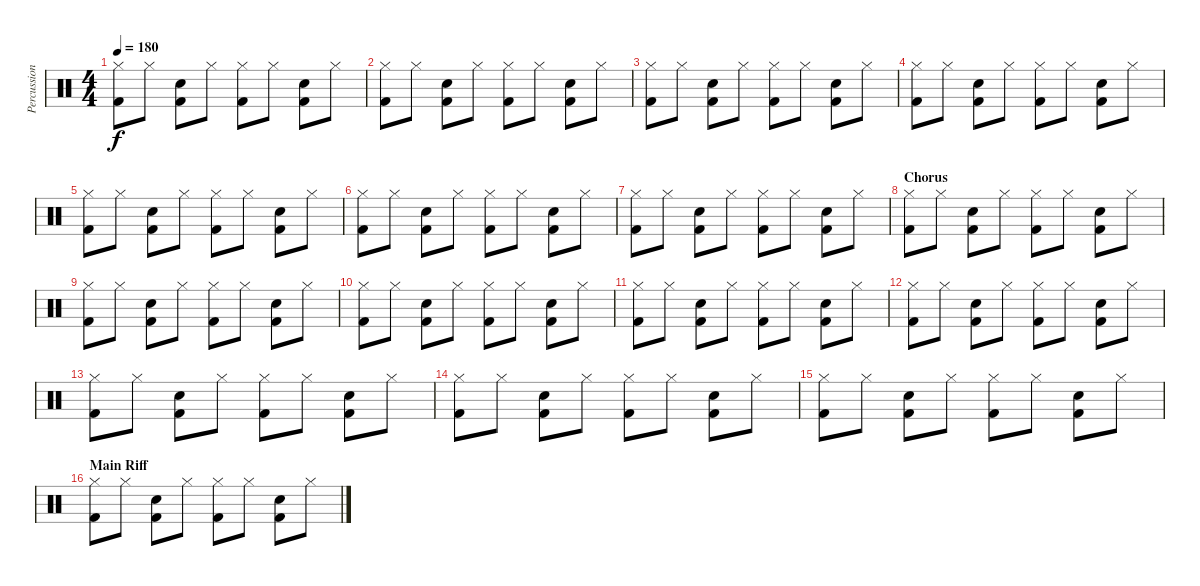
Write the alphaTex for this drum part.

\track ("Percussion" "Percussion") {instrument percussion}
\staff {score}
\articulation defaults
\ts (4 4)
\tempo 180
\clef neutral
\ks c
("Kick (hit) 2" "Hi-Hat (closed)").8{dy f} "Hi-Hat (closed)".8 ("Kick (hit) 2" "Snare (hit) 2").8 "Hi-Hat (closed)".8 ("Kick (hit) 2" "Hi-Hat (closed)").8 "Hi-Hat (closed)".8 ("Kick (hit) 2" "Electric Snare (hit)").8 "Hi-Hat (closed)".8 |
("Kick (hit) 2" "Hi-Hat (closed)").8 "Hi-Hat (closed)".8 ("Kick (hit) 2" "Snare (hit) 2").8 "Hi-Hat (closed)".8 ("Kick (hit) 2" "Hi-Hat (closed)").8 "Hi-Hat (closed)".8 ("Kick (hit) 2" "Electric Snare (hit)").8 "Hi-Hat (closed)".8 |
("Kick (hit) 2" "Hi-Hat (closed)").8 "Hi-Hat (closed)".8 ("Kick (hit) 2" "Snare (hit) 2").8 "Hi-Hat (closed)".8 ("Kick (hit) 2" "Hi-Hat (closed)").8 "Hi-Hat (closed)".8 ("Kick (hit) 2" "Electric Snare (hit)").8 "Hi-Hat (closed)".8 |
("Kick (hit) 2" "Hi-Hat (closed)").8 "Hi-Hat (closed)".8 ("Kick (hit) 2" "Snare (hit) 2").8 "Hi-Hat (closed)".8 ("Kick (hit) 2" "Hi-Hat (closed)").8 "Hi-Hat (closed)".8 ("Kick (hit) 2" "Electric Snare (hit)").8 "Hi-Hat (closed)".8 |
("Kick (hit) 2" "Hi-Hat (closed)").8 "Hi-Hat (closed)".8 ("Kick (hit) 2" "Snare (hit) 2").8 "Hi-Hat (closed)".8 ("Kick (hit) 2" "Hi-Hat (closed)").8 "Hi-Hat (closed)".8 ("Kick (hit) 2" "Electric Snare (hit)").8 "Hi-Hat (closed)".8 |
("Kick (hit) 2" "Hi-Hat (closed)").8 "Hi-Hat (closed)".8 ("Kick (hit) 2" "Snare (hit) 2").8 "Hi-Hat (closed)".8 ("Kick (hit) 2" "Hi-Hat (closed)").8 "Hi-Hat (closed)".8 ("Kick (hit) 2" "Electric Snare (hit)").8 "Hi-Hat (closed)".8 |
("Kick (hit) 2" "Hi-Hat (closed)").8 "Hi-Hat (closed)".8 ("Kick (hit) 2" "Snare (hit) 2").8 "Hi-Hat (closed)".8 ("Kick (hit) 2" "Hi-Hat (closed)").8 "Hi-Hat (closed)".8 ("Kick (hit) 2" "Electric Snare (hit)").8 "Hi-Hat (closed)".8 |
\section ("" "Chorus")
("Kick (hit) 2" "Hi-Hat (closed)").8 "Hi-Hat (closed)".8 ("Kick (hit) 2" "Snare (hit) 2").8 "Hi-Hat (closed)".8 ("Kick (hit) 2" "Hi-Hat (closed)").8 "Hi-Hat (closed)".8 ("Kick (hit) 2" "Electric Snare (hit)").8 "Hi-Hat (closed)".8 |
("Kick (hit) 2" "Hi-Hat (closed)").8 "Hi-Hat (closed)".8 ("Kick (hit) 2" "Snare (hit) 2").8 "Hi-Hat (closed)".8 ("Kick (hit) 2" "Hi-Hat (closed)").8 "Hi-Hat (closed)".8 ("Kick (hit) 2" "Electric Snare (hit)").8 "Hi-Hat (closed)".8 |
("Kick (hit) 2" "Hi-Hat (closed)").8 "Hi-Hat (closed)".8 ("Kick (hit) 2" "Snare (hit) 2").8 "Hi-Hat (closed)".8 ("Kick (hit) 2" "Hi-Hat (closed)").8 "Hi-Hat (closed)".8 ("Kick (hit) 2" "Electric Snare (hit)").8 "Hi-Hat (closed)".8 |
("Kick (hit) 2" "Hi-Hat (closed)").8 "Hi-Hat (closed)".8 ("Kick (hit) 2" "Snare (hit) 2").8 "Hi-Hat (closed)".8 ("Kick (hit) 2" "Hi-Hat (closed)").8 "Hi-Hat (closed)".8 ("Kick (hit) 2" "Electric Snare (hit)").8 "Hi-Hat (closed)".8 |
("Kick (hit) 2" "Hi-Hat (closed)").8 "Hi-Hat (closed)".8 ("Kick (hit) 2" "Snare (hit) 2").8 "Hi-Hat (closed)".8 ("Kick (hit) 2" "Hi-Hat (closed)").8 "Hi-Hat (closed)".8 ("Kick (hit) 2" "Electric Snare (hit)").8 "Hi-Hat (closed)".8 |
("Kick (hit) 2" "Hi-Hat (closed)").8 "Hi-Hat (closed)".8 ("Kick (hit) 2" "Snare (hit) 2").8 "Hi-Hat (closed)".8 ("Kick (hit) 2" "Hi-Hat (closed)").8 "Hi-Hat (closed)".8 ("Kick (hit) 2" "Electric Snare (hit)").8 "Hi-Hat (closed)".8 |
("Kick (hit) 2" "Hi-Hat (closed)").8 "Hi-Hat (closed)".8 ("Kick (hit) 2" "Snare (hit) 2").8 "Hi-Hat (closed)".8 ("Kick (hit) 2" "Hi-Hat (closed)").8 "Hi-Hat (closed)".8 ("Kick (hit) 2" "Electric Snare (hit)").8 "Hi-Hat (closed)".8 |
("Kick (hit) 2" "Hi-Hat (closed)").8 "Hi-Hat (closed)".8 ("Kick (hit) 2" "Snare (hit) 2").8 "Hi-Hat (closed)".8 ("Kick (hit) 2" "Hi-Hat (closed)").8 "Hi-Hat (closed)".8 ("Kick (hit) 2" "Electric Snare (hit)").8 "Hi-Hat (closed)".8 |
\section ("" "Main Riff")
("Kick (hit) 2" "Hi-Hat (closed)").8 "Hi-Hat (closed)".8 ("Kick (hit) 2" "Snare (hit) 2").8 "Hi-Hat (closed)".8 ("Kick (hit) 2" "Hi-Hat (closed)").8 "Hi-Hat (closed)".8 ("Kick (hit) 2" "Electric Snare (hit)").8 "Hi-Hat (closed)".8
